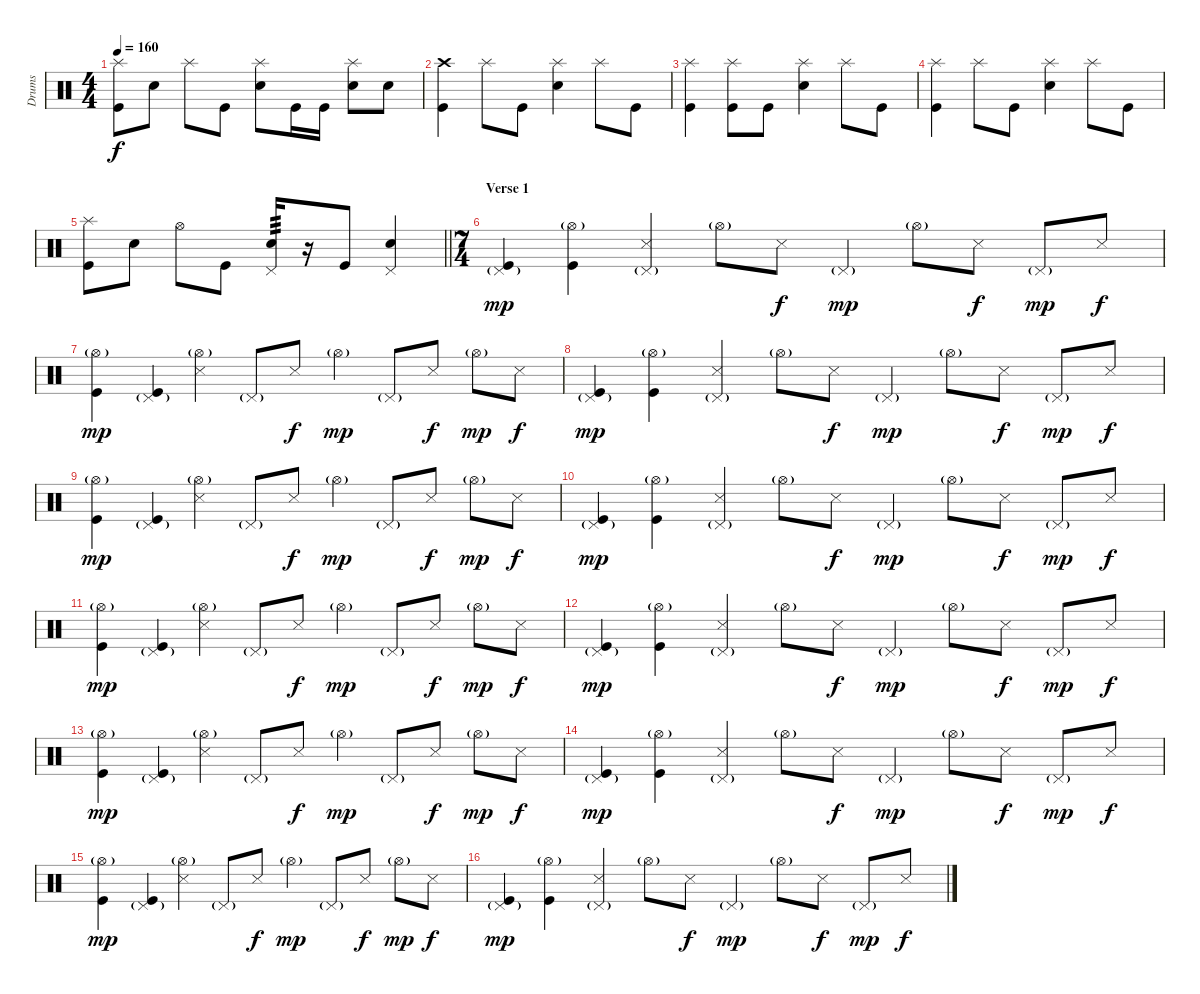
\track ("Drums" "Drums") {instrument percussion}
\staff {score}
\articulation defaults
\ts (4 4)
\tempo 160
\clef neutral
\ks c
("Splash (hit)" "Kick (hit)").8{dy f} "Snare (hit) 2".8 "Splash (hit)".8 "Kick (hit)".8 ("Splash (hit)" "Snare (hit) 2").8 "Kick (hit)".16 "Kick (hit)".16 ("Splash (hit)" "Snare (hit) 2").8 "Snare (hit) 2".8 |
("Crash high (hit)" "Kick (hit)").4 "Splash (hit)".8 "Kick (hit)".8 ("Splash (hit)" "Snare (hit) 2").4 "Splash (hit)".8 "Kick (hit)".8 |
("Splash (hit)" "Kick (hit)").4 ("Splash (hit)" "Kick (hit)").8 "Kick (hit)".8 ("Splash (hit)" "Snare (hit) 2").4 "Splash (hit)".8 "Kick (hit)".8 |
("Splash (hit)" "Kick (hit)").4 "Splash (hit)".8 "Kick (hit)".8 ("Splash (hit)" "Snare (hit) 2").4 "Splash (hit)".8 "Kick (hit)".8 |
\barLineRight lightlight
("Splash (hit)" "Kick (hit)").8 "Snare (hit) 2".8 "Hi-Hat (open)".8 "Kick (hit)".8 ("Pedal Hi-Hat (hit)" "Snare (hit) 2").16{tp 3} r.16 "Kick (hit)".8 ("Pedal Hi-Hat (hit)" "Snare (hit) 2").4 |
\ts (7 4)
\section ("" "Verse 1")
("Pedal Hi-Hat (hit)"{g} "Kick (hit)").4{dy mp} ("Hi-Hat (open)"{g} "Kick (hit)").4 ("Pedal Hi-Hat (hit)"{g} "Snare (side stick) 3").4 "Hi-Hat (open)"{g}.8 "Snare (side stick) 3".8{dy f} "Pedal Hi-Hat (hit)"{g}.4{dy mp} "Hi-Hat (open)"{g}.8 "Snare (side stick) 3".8{dy f} "Pedal Hi-Hat (hit)"{g}.8{dy mp} "Snare (side stick) 3".8{dy f} |
("Hi-Hat (open)"{g} "Kick (hit)").4{dy mp} ("Pedal Hi-Hat (hit)"{g} "Kick (hit)").4 ("Hi-Hat (open)"{g} "Snare (side stick) 3").4 "Pedal Hi-Hat (hit)"{g}.8 "Snare (side stick) 3".8{dy f} "Hi-Hat (open)"{g}.4{dy mp} "Pedal Hi-Hat (hit)"{g}.8 "Snare (side stick) 3".8{dy f} "Hi-Hat (open)"{g}.8{dy mp} "Snare (side stick) 3".8{dy f} |
("Pedal Hi-Hat (hit)"{g} "Kick (hit)").4{dy mp} ("Hi-Hat (open)"{g} "Kick (hit)").4 ("Pedal Hi-Hat (hit)"{g} "Snare (side stick) 3").4 "Hi-Hat (open)"{g}.8 "Snare (side stick) 3".8{dy f} "Pedal Hi-Hat (hit)"{g}.4{dy mp} "Hi-Hat (open)"{g}.8 "Snare (side stick) 3".8{dy f} "Pedal Hi-Hat (hit)"{g}.8{dy mp} "Snare (side stick) 3".8{dy f} |
("Hi-Hat (open)"{g} "Kick (hit)").4{dy mp} ("Pedal Hi-Hat (hit)"{g} "Kick (hit)").4 ("Hi-Hat (open)"{g} "Snare (side stick) 3").4 "Pedal Hi-Hat (hit)"{g}.8 "Snare (side stick) 3".8{dy f} "Hi-Hat (open)"{g}.4{dy mp} "Pedal Hi-Hat (hit)"{g}.8 "Snare (side stick) 3".8{dy f} "Hi-Hat (open)"{g}.8{dy mp} "Snare (side stick) 3".8{dy f} |
("Pedal Hi-Hat (hit)"{g} "Kick (hit)").4{dy mp} ("Hi-Hat (open)"{g} "Kick (hit)").4 ("Pedal Hi-Hat (hit)"{g} "Snare (side stick) 3").4 "Hi-Hat (open)"{g}.8 "Snare (side stick) 3".8{dy f} "Pedal Hi-Hat (hit)"{g}.4{dy mp} "Hi-Hat (open)"{g}.8 "Snare (side stick) 3".8{dy f} "Pedal Hi-Hat (hit)"{g}.8{dy mp} "Snare (side stick) 3".8{dy f} |
("Hi-Hat (open)"{g} "Kick (hit)").4{dy mp} ("Pedal Hi-Hat (hit)"{g} "Kick (hit)").4 ("Hi-Hat (open)"{g} "Snare (side stick) 3").4 "Pedal Hi-Hat (hit)"{g}.8 "Snare (side stick) 3".8{dy f} "Hi-Hat (open)"{g}.4{dy mp} "Pedal Hi-Hat (hit)"{g}.8 "Snare (side stick) 3".8{dy f} "Hi-Hat (open)"{g}.8{dy mp} "Snare (side stick) 3".8{dy f} |
("Pedal Hi-Hat (hit)"{g} "Kick (hit)").4{dy mp} ("Hi-Hat (open)"{g} "Kick (hit)").4 ("Pedal Hi-Hat (hit)"{g} "Snare (side stick) 3").4 "Hi-Hat (open)"{g}.8 "Snare (side stick) 3".8{dy f} "Pedal Hi-Hat (hit)"{g}.4{dy mp} "Hi-Hat (open)"{g}.8 "Snare (side stick) 3".8{dy f} "Pedal Hi-Hat (hit)"{g}.8{dy mp} "Snare (side stick) 3".8{dy f} |
("Hi-Hat (open)"{g} "Kick (hit)").4{dy mp} ("Pedal Hi-Hat (hit)"{g} "Kick (hit)").4 ("Hi-Hat (open)"{g} "Snare (side stick) 3").4 "Pedal Hi-Hat (hit)"{g}.8 "Snare (side stick) 3".8{dy f} "Hi-Hat (open)"{g}.4{dy mp} "Pedal Hi-Hat (hit)"{g}.8 "Snare (side stick) 3".8{dy f} "Hi-Hat (open)"{g}.8{dy mp} "Snare (side stick) 3".8{dy f} |
("Pedal Hi-Hat (hit)"{g} "Kick (hit)").4{dy mp} ("Hi-Hat (open)"{g} "Kick (hit)").4 ("Pedal Hi-Hat (hit)"{g} "Snare (side stick) 3").4 "Hi-Hat (open)"{g}.8 "Snare (side stick) 3".8{dy f} "Pedal Hi-Hat (hit)"{g}.4{dy mp} "Hi-Hat (open)"{g}.8 "Snare (side stick) 3".8{dy f} "Pedal Hi-Hat (hit)"{g}.8{dy mp} "Snare (side stick) 3".8{dy f} |
("Hi-Hat (open)"{g} "Kick (hit)").4{dy mp} ("Pedal Hi-Hat (hit)"{g} "Kick (hit)").4 ("Hi-Hat (open)"{g} "Snare (side stick) 3").4 "Pedal Hi-Hat (hit)"{g}.8 "Snare (side stick) 3".8{dy f} "Hi-Hat (open)"{g}.4{dy mp} "Pedal Hi-Hat (hit)"{g}.8 "Snare (side stick) 3".8{dy f} "Hi-Hat (open)"{g}.8{dy mp} "Snare (side stick) 3".8{dy f} |
("Pedal Hi-Hat (hit)"{g} "Kick (hit)").4{dy mp} ("Hi-Hat (open)"{g} "Kick (hit)").4 ("Pedal Hi-Hat (hit)"{g} "Snare (side stick) 3").4 "Hi-Hat (open)"{g}.8 "Snare (side stick) 3".8{dy f} "Pedal Hi-Hat (hit)"{g}.4{dy mp} "Hi-Hat (open)"{g}.8 "Snare (side stick) 3".8{dy f} "Pedal Hi-Hat (hit)"{g}.8{dy mp} "Snare (side stick) 3".8{dy f}
